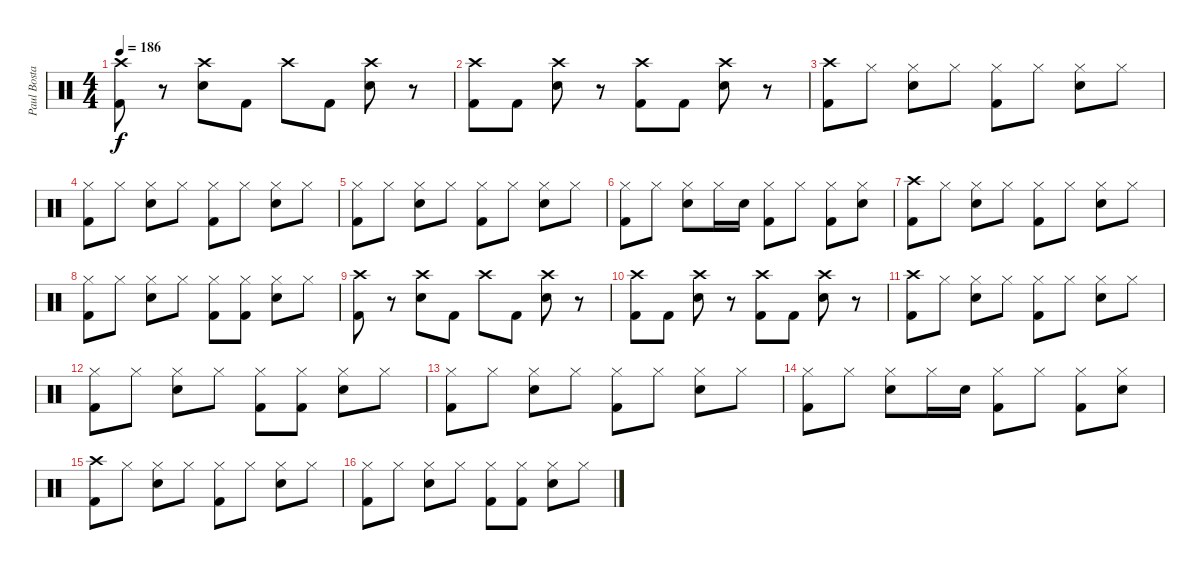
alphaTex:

\track ("Paul Bostaph" "Paul Bosta") {instrument percussion}
\staff {score}
\articulation defaults
\ts (4 4)
\tempo 186
\clef neutral
\ks c
("Crash high (hit)" "Kick (hit) 2").8{dy f} r.8 ("Crash high (hit)" "Electric Snare (hit)").8 "Kick (hit) 2".8 "Crash high (hit)".8 "Kick (hit) 2".8 ("Crash high (hit)" "Electric Snare (hit)").8 r.8 |
("Crash high (hit)" "Kick (hit) 2").8 "Kick (hit) 2".8 ("Crash high (hit)" "Electric Snare (hit)").8 r.8 ("Crash high (hit)" "Kick (hit) 2").8 "Kick (hit) 2".8 ("Crash high (hit)" "Electric Snare (hit)").8 r.8 |
("Crash high (hit)" "Kick (hit) 2").8 "Hi-Hat (closed)".8 ("Hi-Hat (closed)" "Electric Snare (hit)").8 "Hi-Hat (closed)".8 ("Hi-Hat (closed)" "Kick (hit) 2").8 "Hi-Hat (closed)".8 ("Hi-Hat (closed)" "Electric Snare (hit)").8 "Hi-Hat (closed)".8 |
("Hi-Hat (closed)" "Kick (hit) 2").8 "Hi-Hat (closed)".8 ("Hi-Hat (closed)" "Electric Snare (hit)").8 "Hi-Hat (closed)".8 ("Hi-Hat (closed)" "Kick (hit) 2").8 "Hi-Hat (closed)".8 ("Hi-Hat (closed)" "Electric Snare (hit)").8 "Hi-Hat (closed)".8 |
("Hi-Hat (closed)" "Kick (hit) 2").8 "Hi-Hat (closed)".8 ("Hi-Hat (closed)" "Electric Snare (hit)").8 "Hi-Hat (closed)".8 ("Hi-Hat (closed)" "Kick (hit) 2").8 "Hi-Hat (closed)".8 ("Hi-Hat (closed)" "Electric Snare (hit)").8 "Hi-Hat (closed)".8 |
("Hi-Hat (closed)" "Kick (hit) 2").8 "Hi-Hat (closed)".8 ("Hi-Hat (closed)" "Electric Snare (hit)").8 "Hi-Hat (closed)".16 "Electric Snare (hit)".16 ("Hi-Hat (closed)" "Kick (hit) 2").8 "Hi-Hat (closed)".8 ("Hi-Hat (closed)" "Kick (hit) 2").8 ("Hi-Hat (closed)" "Electric Snare (hit)").8 |
("Crash high (hit)" "Kick (hit) 2").8 "Hi-Hat (closed)".8 ("Hi-Hat (closed)" "Electric Snare (hit)").8 "Hi-Hat (closed)".8 ("Hi-Hat (closed)" "Kick (hit) 2").8 "Hi-Hat (closed)".8 ("Hi-Hat (closed)" "Electric Snare (hit)").8 "Hi-Hat (closed)".8 |
("Hi-Hat (closed)" "Kick (hit) 2").8 "Hi-Hat (closed)".8 ("Hi-Hat (closed)" "Electric Snare (hit)").8 "Hi-Hat (closed)".8 ("Hi-Hat (closed)" "Kick (hit) 2").8 ("Hi-Hat (closed)" "Kick (hit) 2").8 ("Hi-Hat (closed)" "Electric Snare (hit)").8 "Hi-Hat (closed)".8 |
("Crash high (hit)" "Kick (hit) 2").8 r.8 ("Crash high (hit)" "Electric Snare (hit)").8 "Kick (hit) 2".8 "Crash high (hit)".8 "Kick (hit) 2".8 ("Crash high (hit)" "Electric Snare (hit)").8 r.8 |
("Crash high (hit)" "Kick (hit) 2").8 "Kick (hit) 2".8 ("Crash high (hit)" "Electric Snare (hit)").8 r.8 ("Crash high (hit)" "Kick (hit) 2").8 "Kick (hit) 2".8 ("Crash high (hit)" "Electric Snare (hit)").8 r.8 |
("Crash high (hit)" "Kick (hit) 2").8 "Hi-Hat (closed)".8 ("Hi-Hat (closed)" "Electric Snare (hit)").8 "Hi-Hat (closed)".8 ("Hi-Hat (closed)" "Kick (hit) 2").8 "Hi-Hat (closed)".8 ("Hi-Hat (closed)" "Electric Snare (hit)").8 "Hi-Hat (closed)".8 |
("Hi-Hat (closed)" "Kick (hit) 2").8 "Hi-Hat (closed)".8 ("Hi-Hat (closed)" "Electric Snare (hit)").8 "Hi-Hat (closed)".8 ("Hi-Hat (closed)" "Kick (hit) 2").8 ("Hi-Hat (closed)" "Kick (hit) 2").8 ("Hi-Hat (closed)" "Electric Snare (hit)").8 "Hi-Hat (closed)".8 |
("Hi-Hat (closed)" "Kick (hit) 2").8 "Hi-Hat (closed)".8 ("Hi-Hat (closed)" "Electric Snare (hit)").8 "Hi-Hat (closed)".8 ("Hi-Hat (closed)" "Kick (hit) 2").8 "Hi-Hat (closed)".8 ("Hi-Hat (closed)" "Electric Snare (hit)").8 "Hi-Hat (closed)".8 |
("Hi-Hat (closed)" "Kick (hit) 2").8 "Hi-Hat (closed)".8 ("Hi-Hat (closed)" "Electric Snare (hit)").8 "Hi-Hat (closed)".16 "Electric Snare (hit)".16 ("Hi-Hat (closed)" "Kick (hit) 2").8 "Hi-Hat (closed)".8 ("Hi-Hat (closed)" "Kick (hit) 2").8 ("Hi-Hat (closed)" "Electric Snare (hit)").8 |
("Crash high (hit)" "Kick (hit) 2").8 "Hi-Hat (closed)".8 ("Hi-Hat (closed)" "Electric Snare (hit)").8 "Hi-Hat (closed)".8 ("Hi-Hat (closed)" "Kick (hit) 2").8 "Hi-Hat (closed)".8 ("Hi-Hat (closed)" "Electric Snare (hit)").8 "Hi-Hat (closed)".8 |
("Hi-Hat (closed)" "Kick (hit) 2").8 "Hi-Hat (closed)".8 ("Hi-Hat (closed)" "Electric Snare (hit)").8 "Hi-Hat (closed)".8 ("Hi-Hat (closed)" "Kick (hit) 2").8 ("Hi-Hat (closed)" "Kick (hit) 2").8 ("Hi-Hat (closed)" "Electric Snare (hit)").8 "Hi-Hat (closed)".8
